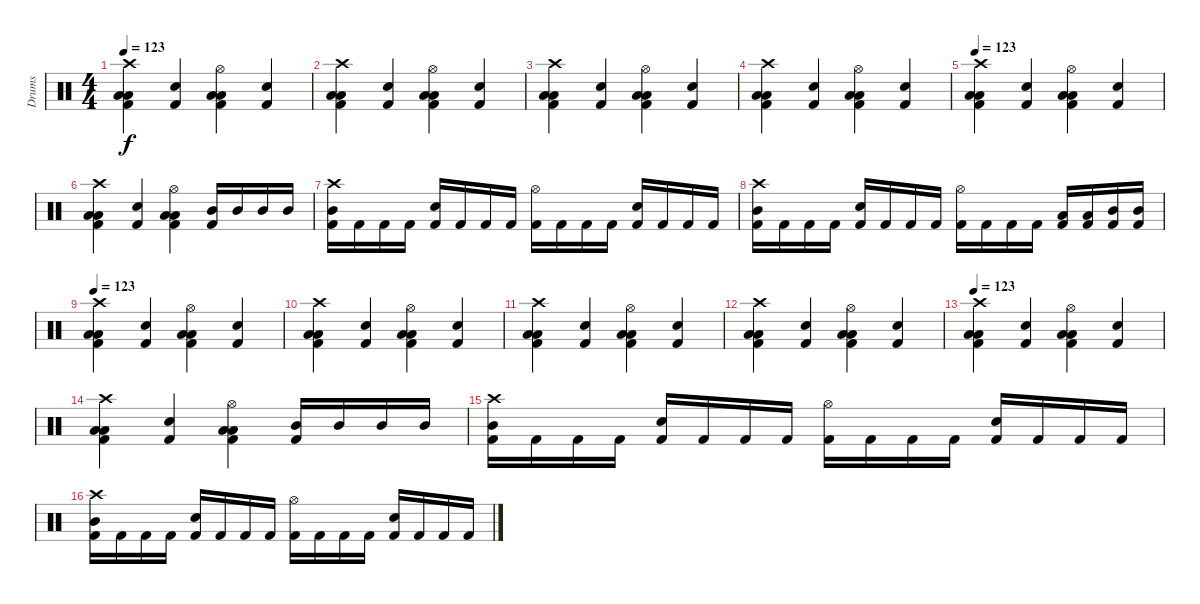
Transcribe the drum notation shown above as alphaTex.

\track ("Drums" "Drums") {instrument percussion}
\staff {score}
\articulation defaults
\ts (4 4)
\tempo 123
\clef neutral
\ks c
("Crash high (hit)" "Low Floor Tom (hit)" "Low Floor Tom (hit)" "Kick (hit) 2").4{dy f} ("Snare (hit) 2" "Kick (hit) 2").4 ("Hi-Hat (open)" "Low Floor Tom (hit)" "Low Floor Tom (hit)" "Kick (hit) 2").4 ("Snare (hit) 2" "Kick (hit) 2").4 |
("Crash high (hit)" "Low Floor Tom (hit)" "Low Floor Tom (hit)" "Kick (hit) 2").4 ("Snare (hit) 2" "Kick (hit) 2").4 ("Hi-Hat (open)" "Low Floor Tom (hit)" "Low Floor Tom (hit)" "Kick (hit) 2").4 ("Snare (hit) 2" "Kick (hit) 2").4 |
("Crash high (hit)" "Low Floor Tom (hit)" "Low Floor Tom (hit)" "Kick (hit) 2").4 ("Snare (hit) 2" "Kick (hit) 2").4 ("Hi-Hat (open)" "Low Floor Tom (hit)" "Low Floor Tom (hit)" "Kick (hit) 2").4 ("Snare (hit) 2" "Kick (hit) 2").4 |
("Crash high (hit)" "Low Floor Tom (hit)" "Low Floor Tom (hit)" "Kick (hit) 2").4 ("Snare (hit) 2" "Kick (hit) 2").4 ("Hi-Hat (open)" "Low Floor Tom (hit)" "Low Floor Tom (hit)" "Kick (hit) 2").4 ("Snare (hit) 2" "Kick (hit) 2").4 |
\tempo 123
("Crash high (hit)" "Low Floor Tom (hit)" "Low Floor Tom (hit)" "Kick (hit) 2").4 ("Snare (hit) 2" "Kick (hit) 2").4 ("Hi-Hat (open)" "Low Floor Tom (hit)" "Low Floor Tom (hit)" "Kick (hit) 2").4 ("Snare (hit) 2" "Kick (hit) 2").4 |
("Crash high (hit)" "Low Floor Tom (hit)" "Low Floor Tom (hit)" "Kick (hit) 2").4 ("Snare (hit) 2" "Kick (hit) 2").4 ("Hi-Hat (open)" "Low Floor Tom (hit)" "Low Floor Tom (hit)" "Kick (hit) 2").4 ("Mid Tom (hit)" "Kick (hit) 2").16 "Mid Tom (hit)".16 "Mid Tom (hit)".16 "Mid Tom (hit)".16 |
("Crash high (hit)" "Mid Tom (hit)" "Kick (hit) 2").16 "Kick (hit) 2".16 "Kick (hit) 2".16 "Kick (hit) 2".16 ("Snare (hit) 2" "Kick (hit) 2").16 "Kick (hit) 2".16 "Kick (hit) 2".16 "Kick (hit) 2".16 ("Hi-Hat (open)" "Kick (hit) 2").16 "Kick (hit) 2".16 "Kick (hit) 2".16 "Kick (hit) 2".16 ("Snare (hit) 2" "Kick (hit) 2").16 "Kick (hit) 2".16 "Kick (hit) 2".16 "Kick (hit) 2".16 |
("Crash high (hit)" "Mid Tom (hit)" "Kick (hit) 2").16 "Kick (hit) 2".16 "Kick (hit) 2".16 "Kick (hit) 2".16 ("Snare (hit) 2" "Kick (hit) 2").16 "Kick (hit) 2".16 "Kick (hit) 2".16 "Kick (hit) 2".16 ("Hi-Hat (open)" "Kick (hit) 2").16 "Kick (hit) 2".16 "Kick (hit) 2".16 "Kick (hit) 2".16 ("Low Tom (hit)" "Kick (hit) 2").16 ("Low Tom (hit)" "Kick (hit) 2").16 ("Mid Tom (hit)" "Kick (hit) 2").16 ("Mid Tom (hit)" "Kick (hit) 2").16 |
\tempo 123
("Crash high (hit)" "Low Floor Tom (hit)" "Low Floor Tom (hit)" "Kick (hit) 2").4 ("Snare (hit) 2" "Kick (hit) 2").4 ("Hi-Hat (open)" "Low Floor Tom (hit)" "Low Floor Tom (hit)" "Kick (hit) 2").4 ("Snare (hit) 2" "Kick (hit) 2").4 |
("Crash high (hit)" "Low Floor Tom (hit)" "Low Floor Tom (hit)" "Kick (hit) 2").4 ("Snare (hit) 2" "Kick (hit) 2").4 ("Hi-Hat (open)" "Low Floor Tom (hit)" "Low Floor Tom (hit)" "Kick (hit) 2").4 ("Snare (hit) 2" "Kick (hit) 2").4 |
("Crash high (hit)" "Low Floor Tom (hit)" "Low Floor Tom (hit)" "Kick (hit) 2").4 ("Snare (hit) 2" "Kick (hit) 2").4 ("Hi-Hat (open)" "Low Floor Tom (hit)" "Low Floor Tom (hit)" "Kick (hit) 2").4 ("Snare (hit) 2" "Kick (hit) 2").4 |
("Crash high (hit)" "Low Floor Tom (hit)" "Low Floor Tom (hit)" "Kick (hit) 2").4 ("Snare (hit) 2" "Kick (hit) 2").4 ("Hi-Hat (open)" "Low Floor Tom (hit)" "Low Floor Tom (hit)" "Kick (hit) 2").4 ("Snare (hit) 2" "Kick (hit) 2").4 |
\tempo 123
("Crash high (hit)" "Low Floor Tom (hit)" "Low Floor Tom (hit)" "Kick (hit) 2").4 ("Snare (hit) 2" "Kick (hit) 2").4 ("Hi-Hat (open)" "Low Floor Tom (hit)" "Low Floor Tom (hit)" "Kick (hit) 2").4 ("Snare (hit) 2" "Kick (hit) 2").4 |
("Crash high (hit)" "Low Floor Tom (hit)" "Low Floor Tom (hit)" "Kick (hit) 2").4 ("Snare (hit) 2" "Kick (hit) 2").4 ("Hi-Hat (open)" "Low Floor Tom (hit)" "Low Floor Tom (hit)" "Kick (hit) 2").4 ("Mid Tom (hit)" "Kick (hit) 2").16 "Mid Tom (hit)".16 "Mid Tom (hit)".16 "Mid Tom (hit)".16 |
("Crash high (hit)" "Mid Tom (hit)" "Kick (hit) 2").16 "Kick (hit) 2".16 "Kick (hit) 2".16 "Kick (hit) 2".16 ("Snare (hit) 2" "Kick (hit) 2").16 "Kick (hit) 2".16 "Kick (hit) 2".16 "Kick (hit) 2".16 ("Hi-Hat (open)" "Kick (hit) 2").16 "Kick (hit) 2".16 "Kick (hit) 2".16 "Kick (hit) 2".16 ("Snare (hit) 2" "Kick (hit) 2").16 "Kick (hit) 2".16 "Kick (hit) 2".16 "Kick (hit) 2".16 |
("Crash high (hit)" "Mid Tom (hit)" "Kick (hit) 2").16 "Kick (hit) 2".16 "Kick (hit) 2".16 "Kick (hit) 2".16 ("Snare (hit) 2" "Kick (hit) 2").16 "Kick (hit) 2".16 "Kick (hit) 2".16 "Kick (hit) 2".16 ("Hi-Hat (open)" "Kick (hit) 2").16 "Kick (hit) 2".16 "Kick (hit) 2".16 "Kick (hit) 2".16 ("Snare (hit) 2" "Kick (hit) 2").16 "Kick (hit) 2".16 "Kick (hit) 2".16 "Kick (hit) 2".16
